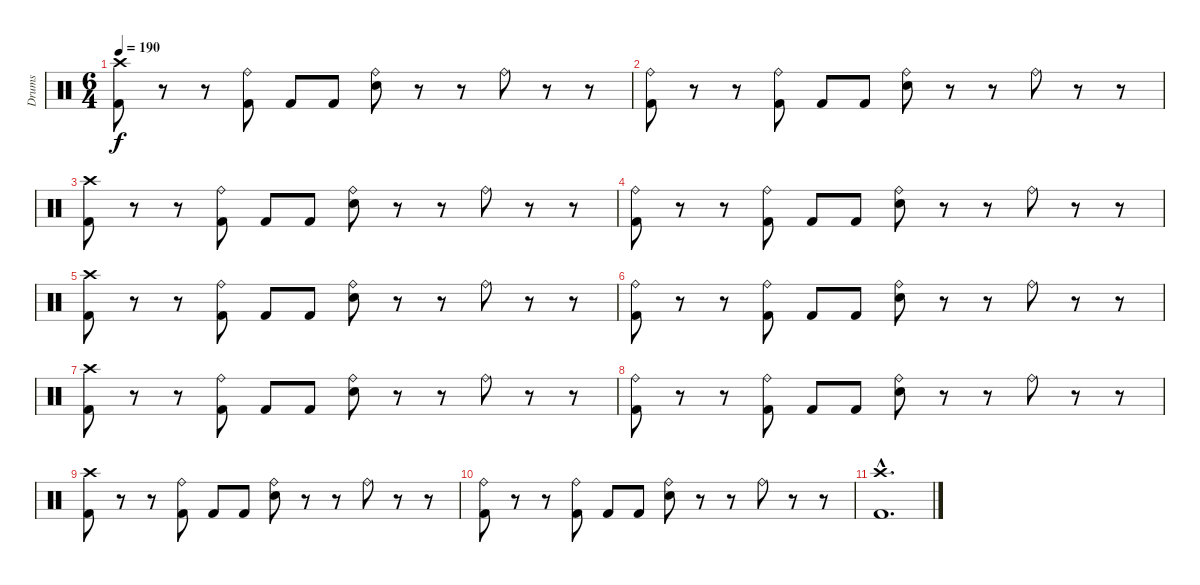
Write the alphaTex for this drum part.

\track ("Drums" "Drums") {instrument percussion}
\staff {score}
\articulation defaults
\ts (6 4)
\tempo 190
\clef neutral
\ks c
("Crash high (hit)" "Kick (hit) 2").8{dy f} r.8 r.8 ("Ride (bell)" "Kick (hit) 2").8 "Kick (hit) 2".8 "Kick (hit) 2".8 ("Ride (bell)" "Snare (hit) 2").8 r.8 r.8 "Ride (bell)".8 r.8 r.8 |
("Ride (bell)" "Kick (hit) 2").8 r.8 r.8 ("Ride (bell)" "Kick (hit) 2").8 "Kick (hit) 2".8 "Kick (hit) 2".8 ("Ride (bell)" "Snare (hit) 2").8 r.8 r.8 "Ride (bell)".8 r.8 r.8 |
("Crash high (hit)" "Kick (hit) 2").8 r.8 r.8 ("Ride (bell)" "Kick (hit) 2").8 "Kick (hit) 2".8 "Kick (hit) 2".8 ("Ride (bell)" "Snare (hit) 2").8 r.8 r.8 "Ride (bell)".8 r.8 r.8 |
("Ride (bell)" "Kick (hit) 2").8 r.8 r.8 ("Ride (bell)" "Kick (hit) 2").8 "Kick (hit) 2".8 "Kick (hit) 2".8 ("Ride (bell)" "Snare (hit) 2").8 r.8 r.8 "Ride (bell)".8 r.8 r.8 |
("Crash high (hit)" "Kick (hit) 2").8 r.8 r.8 ("Ride (bell)" "Kick (hit) 2").8 "Kick (hit) 2".8 "Kick (hit) 2".8 ("Ride (bell)" "Snare (hit) 2").8 r.8 r.8 "Ride (bell)".8 r.8 r.8 |
("Ride (bell)" "Kick (hit) 2").8 r.8 r.8 ("Ride (bell)" "Kick (hit) 2").8 "Kick (hit) 2".8 "Kick (hit) 2".8 ("Ride (bell)" "Snare (hit) 2").8 r.8 r.8 "Ride (bell)".8 r.8 r.8 |
("Crash high (hit)" "Kick (hit) 2").8 r.8 r.8 ("Ride (bell)" "Kick (hit) 2").8 "Kick (hit) 2".8 "Kick (hit) 2".8 ("Ride (bell)" "Snare (hit) 2").8 r.8 r.8 "Ride (bell)".8 r.8 r.8 |
("Ride (bell)" "Kick (hit) 2").8 r.8 r.8 ("Ride (bell)" "Kick (hit) 2").8 "Kick (hit) 2".8 "Kick (hit) 2".8 ("Ride (bell)" "Snare (hit) 2").8 r.8 r.8 "Ride (bell)".8 r.8 r.8 |
("Crash high (hit)" "Kick (hit) 2").8 r.8 r.8 ("Ride (bell)" "Kick (hit) 2").8 "Kick (hit) 2".8 "Kick (hit) 2".8 ("Ride (bell)" "Snare (hit) 2").8 r.8 r.8 "Ride (bell)".8 r.8 r.8 |
("Ride (bell)" "Kick (hit) 2").8 r.8 r.8 ("Ride (bell)" "Kick (hit) 2").8 "Kick (hit) 2".8 "Kick (hit) 2".8 ("Ride (bell)" "Snare (hit) 2").8 r.8 r.8 "Ride (bell)".8 r.8 r.8 |
("Crash high (hit)"{hac} "Kick (hit) 2"{hac}).1{d}
